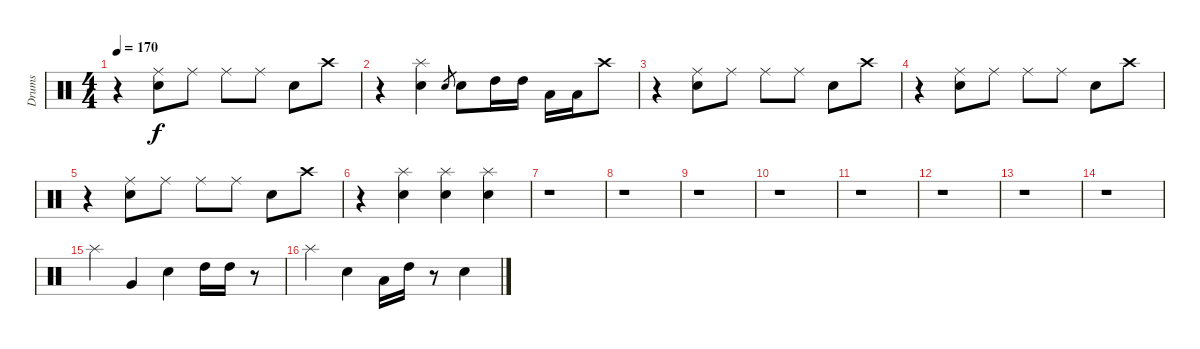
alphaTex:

\track ("Drums" "Drums") {instrument percussion}
\staff {score}
\articulation defaults
\ts (4 4)
\tempo 170
\clef neutral
\ks c
r.4{dy f} ("Ride (middle)" "Snare (hit) 2").8 "Ride (middle)".8 "Ride (middle)".8 "Ride (middle)".8 "Snare (hit) 2".8 "Crash high (hit)".8 |
r.4 ("Splash (hit)" "Snare (hit) 2").4 "Snare (hit) 2".8{gr} "Snare (hit) 2".8 "High Tom (hit)".16 "High Tom (hit)".16 "Low Tom (hit)".16 "Low Tom (hit)".16 "Crash high (hit)".8 |
r.4 ("Ride (middle)" "Snare (hit) 2").8 "Ride (middle)".8 "Ride (middle)".8 "Ride (middle)".8 "Snare (hit) 2".8 "Crash high (hit)".8 |
r.4 ("Ride (middle)" "Snare (hit) 2").8 "Ride (middle)".8 "Ride (middle)".8 "Ride (middle)".8 "Snare (hit) 2".8 "Crash high (hit)".8 |
r.4 ("Ride (middle)" "Snare (hit) 2").8 "Ride (middle)".8 "Ride (middle)".8 "Ride (middle)".8 "Snare (hit) 2".8 "Crash high (hit)".8 |
r.4 ("Splash (hit)" "Snare (hit) 2").4 ("Splash (hit)" "Snare (hit) 2").4 ("Splash (hit)" "Snare (hit) 2").4 |
r.1 |
r.1 |
r.1 |
r.1 |
r.1 |
r.1 |
r.1 |
r.1 |
"Splash (hit)".4 "Very Low Tom (hit)".4 "Snare (hit) 2".4 "High Tom (hit)".16 "High Tom (hit)".16 r.8 |
"Splash (hit)".4 "Snare (hit) 2".4 "Low Tom (hit)".16 "High Tom (hit)".16 r.8 "Snare (hit) 2".4
